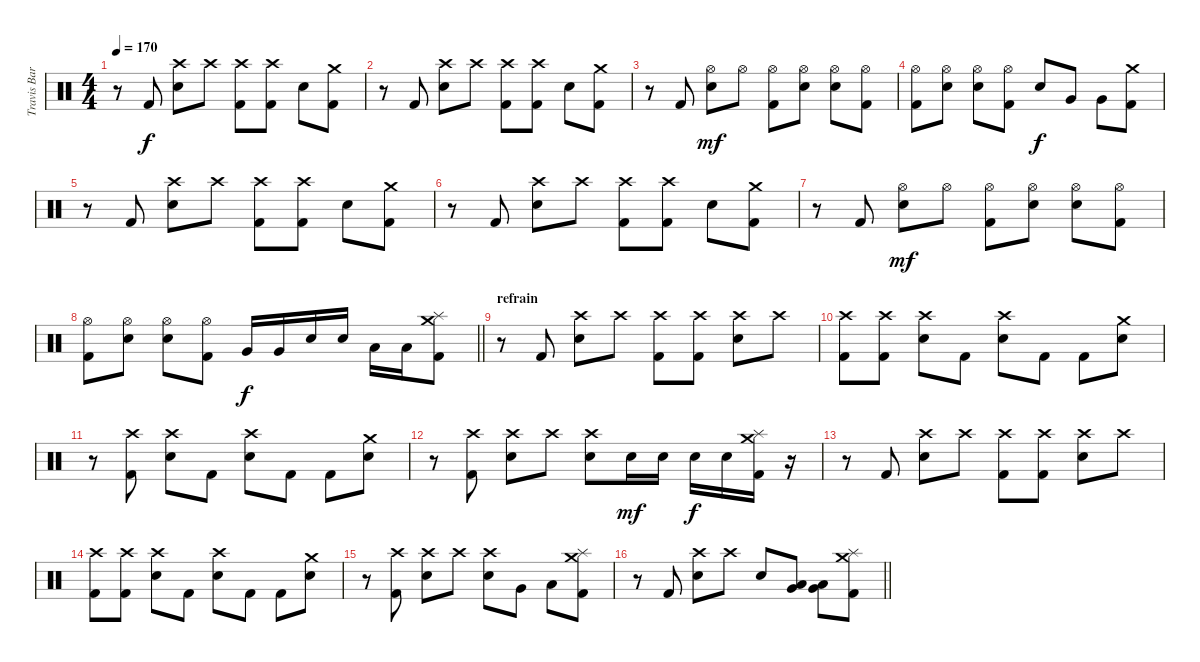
\track ("Travis Barker" "Travis Bar") {instrument percussion}
\staff {score}
\articulation defaults
\ts (4 4)
\tempo 170
\clef neutral
\ks c
r.8{dy f} "Kick (hit) 2".8 ("Crash high (hit)" "Electric Snare (hit)").8 "Crash high (hit)".8 ("Crash high (hit)" "Kick (hit) 2").8 ("Crash high (hit)" "Kick (hit) 2").8 "Electric Snare (hit)".8 ("Crash medium (hit)" "Kick (hit) 2").8 |
r.8 "Kick (hit) 2".8 ("Crash high (hit)" "Electric Snare (hit)").8 "Crash high (hit)".8 ("Crash high (hit)" "Kick (hit) 2").8 ("Crash high (hit)" "Kick (hit) 2").8 "Electric Snare (hit)".8 ("Crash medium (hit)" "Kick (hit) 2").8 |
r.8 "Kick (hit) 2".8 ("Hi-Hat (open)" "Electric Snare (hit)").8{dy mf} "Hi-Hat (open)".8 ("Hi-Hat (open)" "Kick (hit) 2").8 ("Hi-Hat (open)" "Electric Snare (hit)").8 ("Hi-Hat (open)" "Electric Snare (hit)").8 ("Hi-Hat (open)" "Kick (hit) 2").8 |
("Hi-Hat (open)" "Kick (hit) 2").8 ("Hi-Hat (open)" "Electric Snare (hit)").8 ("Hi-Hat (open)" "Electric Snare (hit)").8 ("Hi-Hat (open)" "Kick (hit) 2").8 "Electric Snare (hit)".8{dy f} "Very Low Tom (hit)".8 "Very Low Tom (hit)".8 ("Crash medium (hit)" "Kick (hit) 2").8 |
r.8 "Kick (hit) 2".8 ("Crash high (hit)" "Electric Snare (hit)").8 "Crash high (hit)".8 ("Crash high (hit)" "Kick (hit) 2").8 ("Crash high (hit)" "Kick (hit) 2").8 "Electric Snare (hit)".8 ("Crash medium (hit)" "Kick (hit) 2").8 |
r.8 "Kick (hit) 2".8 ("Crash high (hit)" "Electric Snare (hit)").8 "Crash high (hit)".8 ("Crash high (hit)" "Kick (hit) 2").8 ("Crash high (hit)" "Kick (hit) 2").8 "Electric Snare (hit)".8 ("Crash medium (hit)" "Kick (hit) 2").8 |
r.8 "Kick (hit) 2".8 ("Hi-Hat (open)" "Electric Snare (hit)").8{dy mf} "Hi-Hat (open)".8 ("Hi-Hat (open)" "Kick (hit) 2").8 ("Hi-Hat (open)" "Electric Snare (hit)").8 ("Hi-Hat (open)" "Electric Snare (hit)").8 ("Hi-Hat (open)" "Kick (hit) 2").8 |
\barLineRight lightlight
("Hi-Hat (open)" "Kick (hit) 2").8 ("Hi-Hat (open)" "Electric Snare (hit)").8 ("Hi-Hat (open)" "Electric Snare (hit)").8 ("Hi-Hat (open)" "Kick (hit) 2").8 "Very Low Tom (hit)".16{dy f} "Very Low Tom (hit)".16 "Electric Snare (hit)".16 "Electric Snare (hit)".16 "Low Floor Tom (hit)".16 "Low Floor Tom (hit)".16 ("Splash (hit)" "Crash medium (hit)" "Kick (hit) 2").8 |
\section ("" "refrain")
r.8 "Kick (hit) 2".8 ("Crash high (hit)" "Electric Snare (hit)").8 "Crash high (hit)".8 ("Crash high (hit)" "Kick (hit) 2").8 ("Crash high (hit)" "Kick (hit) 2").8 ("Crash high (hit)" "Electric Snare (hit)").8 "Crash high (hit)".8 |
("Crash high (hit)" "Kick (hit) 2").8 ("Crash high (hit)" "Kick (hit) 2").8 ("Crash high (hit)" "Electric Snare (hit)").8 "Kick (hit) 2".8 ("Crash high (hit)" "Electric Snare (hit)").8 "Kick (hit) 2".8 "Kick (hit) 2".8 ("Crash medium (hit)" "Electric Snare (hit)").8 |
r.8 ("Crash high (hit)" "Kick (hit) 2").8 ("Crash high (hit)" "Electric Snare (hit)").8 "Kick (hit) 2".8 ("Crash high (hit)" "Electric Snare (hit)").8 "Kick (hit) 2".8 "Kick (hit) 2".8 ("Crash medium (hit)" "Electric Snare (hit)").8 |
r.8 ("Crash high (hit)" "Kick (hit) 2").8 ("Crash high (hit)" "Electric Snare (hit)").8 "Crash high (hit)".8 ("Crash high (hit)" "Electric Snare (hit)").8 "Electric Snare (hit)".16{dy mf} "Electric Snare (hit)".16 "Electric Snare (hit)".16{dy f} "Electric Snare (hit)".16 ("Crash medium (hit)" "Kick (hit) 2" "Splash (hit)").16 r.16 |
r.8 "Kick (hit) 2".8 ("Crash high (hit)" "Electric Snare (hit)").8 "Crash high (hit)".8 ("Crash high (hit)" "Kick (hit) 2").8 ("Crash high (hit)" "Kick (hit) 2").8 ("Crash high (hit)" "Electric Snare (hit)").8 "Crash high (hit)".8 |
("Crash high (hit)" "Kick (hit) 2").8 ("Crash high (hit)" "Kick (hit) 2").8 ("Crash high (hit)" "Electric Snare (hit)").8 "Kick (hit) 2".8 ("Crash high (hit)" "Electric Snare (hit)").8 "Kick (hit) 2".8 "Kick (hit) 2".8 ("Crash medium (hit)" "Electric Snare (hit)").8 |
r.8 ("Crash high (hit)" "Kick (hit) 2").8 ("Crash high (hit)" "Electric Snare (hit)").8 "Crash high (hit)".8 ("Crash high (hit)" "Electric Snare (hit)").8 "Very Low Tom (hit)".8 "Low Floor Tom (hit)".8 ("Crash medium (hit)" "Kick (hit) 2" "Splash (hit)").8 |
\barLineRight lightlight
r.8 "Kick (hit) 2".8 ("Crash high (hit)" "Electric Snare (hit)").8 "Crash high (hit)".8 "Electric Snare (hit)".8 ("Very Low Tom (hit)" "Low Floor Tom (hit)").8 ("Very Low Tom (hit)" "Low Floor Tom (hit)").8 ("Crash medium (hit)" "Kick (hit) 2" "Splash (hit)").8
